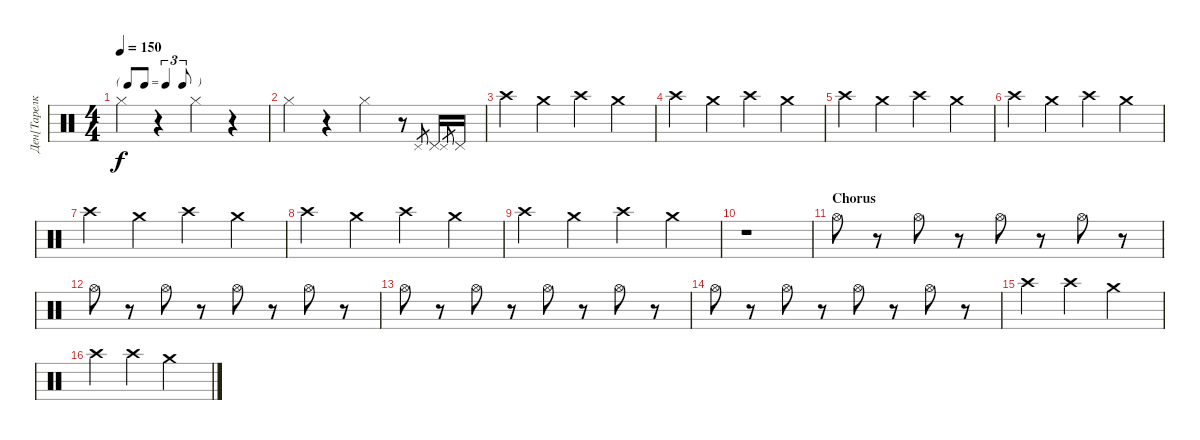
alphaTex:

\track ("Ден[Тарелки]" "Ден[Тарелк") {instrument percussion}
\staff {score}
\articulation defaults
\ts (4 4)
\tf triplet8th
\tempo 150
\clef neutral
\ks c "Hi-Hat (closed)".4{dy f}
r.4 "Hi-Hat (closed)".4 r.4 |
"Hi-Hat (closed)".4 r.4 "Hi-Hat (closed)".4 r.8 "Pedal Hi-Hat (hit)".8{gr} "Pedal Hi-Hat (hit)".16 "Pedal Hi-Hat (hit)".8{gr} "Pedal Hi-Hat (hit)".16 |
"Crash high (hit)".4 "Crash medium (hit)".4 "Crash high (hit)".4 "Crash medium (hit)".4 |
"Crash high (hit)".4 "Crash medium (hit)".4 "Crash high (hit)".4 "Crash medium (hit)".4 |
"Crash high (hit)".4 "Crash medium (hit)".4 "Crash high (hit)".4 "Crash medium (hit)".4 |
"Crash high (hit)".4 "Crash medium (hit)".4 "Crash high (hit)".4 "Crash medium (hit)".4 |
"Crash high (hit)".4 "Crash medium (hit)".4 "Crash high (hit)".4 "Crash medium (hit)".4 |
"Crash high (hit)".4 "Crash medium (hit)".4 "Crash high (hit)".4 "Crash medium (hit)".4 |
"Crash high (hit)".4 "Crash medium (hit)".4 "Crash high (hit)".4 "Crash medium (hit)".4 |
r.1 |
\section ("" "Chorus")
"Hi-Hat (open)".8 r.8 "Hi-Hat (open)".8 r.8 "Hi-Hat (open)".8 r.8 "Hi-Hat (open)".8 r.8 |
"Hi-Hat (open)".8 r.8 "Hi-Hat (open)".8 r.8 "Hi-Hat (open)".8 r.8 "Hi-Hat (open)".8 r.8 |
"Hi-Hat (open)".8 r.8 "Hi-Hat (open)".8 r.8 "Hi-Hat (open)".8 r.8 "Hi-Hat (open)".8 r.8 |
"Hi-Hat (open)".8 r.8 "Hi-Hat (open)".8 r.8 "Hi-Hat (open)".8 r.8 "Hi-Hat (open)".8 r.8 |
"Crash high (hit)".4 "Crash high (hit)".4 "Crash medium (hit)".2 |
"Crash high (hit)".4 "Crash high (hit)".4 "Crash medium (hit)".2
